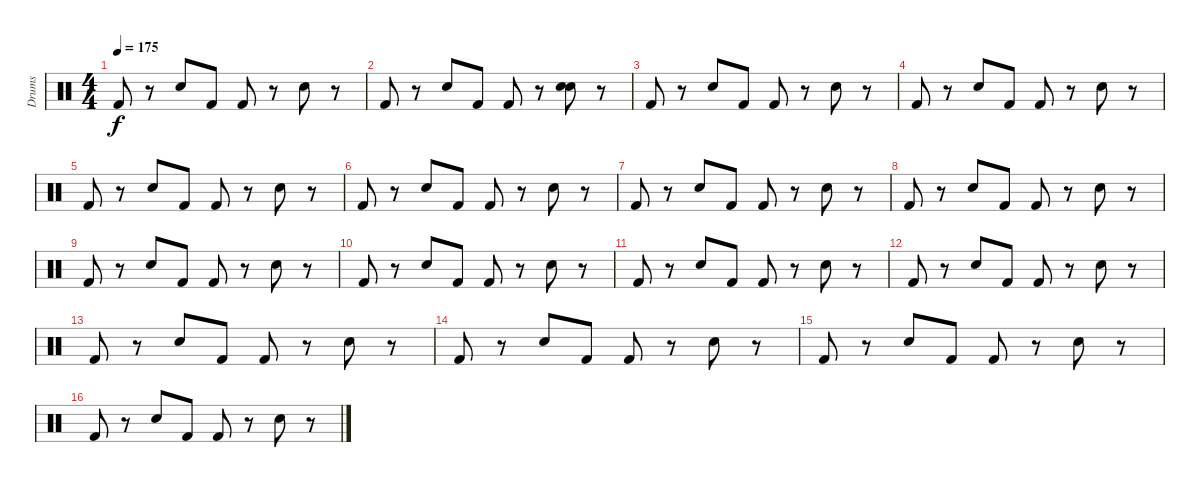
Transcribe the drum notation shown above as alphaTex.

\track ("Drums" "Drums") {instrument percussion}
\staff {score}
\articulation defaults
\ts (4 4)
\tempo 175
\clef neutral
\ks c "Kick (hit) 2".8{dy f}
r.8 "Electric Snare (hit)".8 "Kick (hit) 2".8 "Kick (hit) 2".8 r.8 "Electric Snare (hit)".8 r.8 |
"Kick (hit) 2".8 r.8 "Electric Snare (hit)".8 "Kick (hit) 2".8 "Kick (hit) 2".8 r.8 ("Snare (hit) 2" "Electric Snare (hit)").8 r.8 |
"Kick (hit) 2".8 r.8 "Electric Snare (hit)".8 "Kick (hit) 2".8 "Kick (hit) 2".8 r.8 "Electric Snare (hit)".8 r.8 |
"Kick (hit) 2".8 r.8 "Electric Snare (hit)".8 "Kick (hit) 2".8 "Kick (hit) 2".8 r.8 "Electric Snare (hit)".8 r.8 |
"Kick (hit) 2".8 r.8 "Electric Snare (hit)".8 "Kick (hit) 2".8 "Kick (hit) 2".8 r.8 "Electric Snare (hit)".8 r.8 |
"Kick (hit) 2".8 r.8 "Electric Snare (hit)".8 "Kick (hit) 2".8 "Kick (hit) 2".8 r.8 "Electric Snare (hit)".8 r.8 |
"Kick (hit) 2".8 r.8 "Electric Snare (hit)".8 "Kick (hit) 2".8 "Kick (hit) 2".8 r.8 "Electric Snare (hit)".8 r.8 |
"Kick (hit) 2".8 r.8 "Electric Snare (hit)".8 "Kick (hit) 2".8 "Kick (hit) 2".8 r.8 "Electric Snare (hit)".8 r.8 |
"Kick (hit) 2".8 r.8 "Electric Snare (hit)".8 "Kick (hit) 2".8 "Kick (hit) 2".8 r.8 "Electric Snare (hit)".8 r.8 |
"Kick (hit) 2".8 r.8 "Electric Snare (hit)".8 "Kick (hit) 2".8 "Kick (hit) 2".8 r.8 "Electric Snare (hit)".8 r.8 |
"Kick (hit) 2".8 r.8 "Electric Snare (hit)".8 "Kick (hit) 2".8 "Kick (hit) 2".8 r.8 "Electric Snare (hit)".8 r.8 |
"Kick (hit) 2".8 r.8 "Electric Snare (hit)".8 "Kick (hit) 2".8 "Kick (hit) 2".8 r.8 "Electric Snare (hit)".8 r.8 |
"Kick (hit) 2".8 r.8 "Electric Snare (hit)".8 "Kick (hit) 2".8 "Kick (hit) 2".8 r.8 "Electric Snare (hit)".8 r.8 |
"Kick (hit) 2".8 r.8 "Electric Snare (hit)".8 "Kick (hit) 2".8 "Kick (hit) 2".8 r.8 "Electric Snare (hit)".8 r.8 |
"Kick (hit) 2".8 r.8 "Electric Snare (hit)".8 "Kick (hit) 2".8 "Kick (hit) 2".8 r.8 "Electric Snare (hit)".8 r.8 |
"Kick (hit) 2".8 r.8 "Electric Snare (hit)".8 "Kick (hit) 2".8 "Kick (hit) 2".8 r.8 "Electric Snare (hit)".8 r.8
